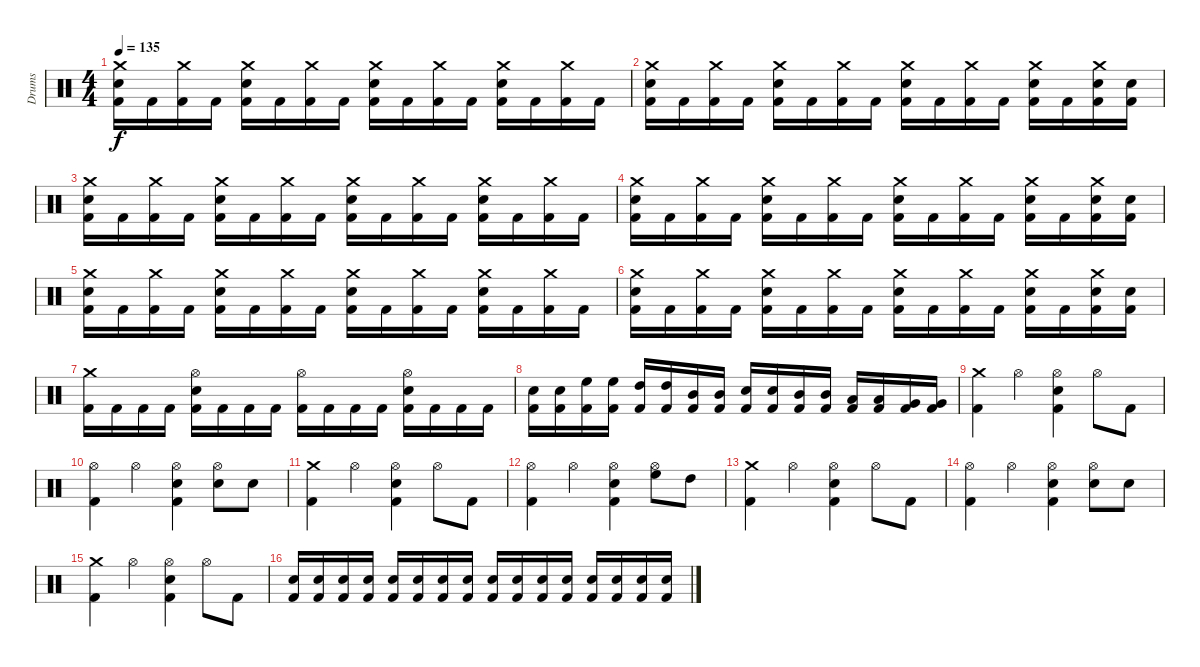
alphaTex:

\track ("Drums" "Drums") {instrument percussion}
\staff {score}
\articulation defaults
\ts (4 4)
\tempo 135
\clef neutral
\ks c
("Crash medium (hit)" "Snare (hit) 2" "Kick (hit) 2").16{dy f} "Kick (hit) 2".16 ("Crash medium (hit)" "Kick (hit) 2").16 "Kick (hit) 2".16 ("Crash medium (hit)" "Snare (hit) 2" "Kick (hit) 2").16 "Kick (hit) 2".16 ("Crash medium (hit)" "Kick (hit) 2").16 "Kick (hit) 2".16 ("Crash medium (hit)" "Snare (hit) 2" "Kick (hit) 2").16 "Kick (hit) 2".16 ("Crash medium (hit)" "Kick (hit) 2").16 "Kick (hit) 2".16 ("Crash medium (hit)" "Snare (hit) 2" "Kick (hit) 2").16 "Kick (hit) 2".16 ("Crash medium (hit)" "Kick (hit) 2").16 "Kick (hit) 2".16 |
("Crash medium (hit)" "Snare (hit) 2" "Kick (hit) 2").16 "Kick (hit) 2".16 ("Crash medium (hit)" "Kick (hit) 2").16 "Kick (hit) 2".16 ("Crash medium (hit)" "Snare (hit) 2" "Kick (hit) 2").16 "Kick (hit) 2".16 ("Crash medium (hit)" "Kick (hit) 2").16 "Kick (hit) 2".16 ("Crash medium (hit)" "Snare (hit) 2" "Kick (hit) 2").16 "Kick (hit) 2".16 ("Crash medium (hit)" "Kick (hit) 2").16 "Kick (hit) 2".16 ("Crash medium (hit)" "Snare (hit) 2" "Kick (hit) 2").16 "Kick (hit) 2".16 ("Crash medium (hit)" "Snare (hit) 2" "Kick (hit) 2").16 ("Snare (hit) 2" "Kick (hit) 2").16 |
("Crash medium (hit)" "Snare (hit) 2" "Kick (hit) 2").16 "Kick (hit) 2".16 ("Crash medium (hit)" "Kick (hit) 2").16 "Kick (hit) 2".16 ("Crash medium (hit)" "Snare (hit) 2" "Kick (hit) 2").16 "Kick (hit) 2".16 ("Crash medium (hit)" "Kick (hit) 2").16 "Kick (hit) 2".16 ("Crash medium (hit)" "Snare (hit) 2" "Kick (hit) 2").16 "Kick (hit) 2".16 ("Crash medium (hit)" "Kick (hit) 2").16 "Kick (hit) 2".16 ("Crash medium (hit)" "Snare (hit) 2" "Kick (hit) 2").16 "Kick (hit) 2".16 ("Crash medium (hit)" "Kick (hit) 2").16 "Kick (hit) 2".16 |
("Crash medium (hit)" "Snare (hit) 2" "Kick (hit) 2").16 "Kick (hit) 2".16 ("Crash medium (hit)" "Kick (hit) 2").16 "Kick (hit) 2".16 ("Crash medium (hit)" "Snare (hit) 2" "Kick (hit) 2").16 "Kick (hit) 2".16 ("Crash medium (hit)" "Kick (hit) 2").16 "Kick (hit) 2".16 ("Crash medium (hit)" "Snare (hit) 2" "Kick (hit) 2").16 "Kick (hit) 2".16 ("Crash medium (hit)" "Kick (hit) 2").16 "Kick (hit) 2".16 ("Crash medium (hit)" "Snare (hit) 2" "Kick (hit) 2").16 "Kick (hit) 2".16 ("Crash medium (hit)" "Snare (hit) 2" "Kick (hit) 2").16 ("Snare (hit) 2" "Kick (hit) 2").16 |
("Crash medium (hit)" "Snare (hit) 2" "Kick (hit) 2").16 "Kick (hit) 2".16 ("Crash medium (hit)" "Kick (hit) 2").16 "Kick (hit) 2".16 ("Crash medium (hit)" "Snare (hit) 2" "Kick (hit) 2").16 "Kick (hit) 2".16 ("Crash medium (hit)" "Kick (hit) 2").16 "Kick (hit) 2".16 ("Crash medium (hit)" "Snare (hit) 2" "Kick (hit) 2").16 "Kick (hit) 2".16 ("Crash medium (hit)" "Kick (hit) 2").16 "Kick (hit) 2".16 ("Crash medium (hit)" "Snare (hit) 2" "Kick (hit) 2").16 "Kick (hit) 2".16 ("Crash medium (hit)" "Kick (hit) 2").16 "Kick (hit) 2".16 |
("Crash medium (hit)" "Snare (hit) 2" "Kick (hit) 2").16 "Kick (hit) 2".16 ("Crash medium (hit)" "Kick (hit) 2").16 "Kick (hit) 2".16 ("Crash medium (hit)" "Snare (hit) 2" "Kick (hit) 2").16 "Kick (hit) 2".16 ("Crash medium (hit)" "Kick (hit) 2").16 "Kick (hit) 2".16 ("Crash medium (hit)" "Snare (hit) 2" "Kick (hit) 2").16 "Kick (hit) 2".16 ("Crash medium (hit)" "Kick (hit) 2").16 "Kick (hit) 2".16 ("Crash medium (hit)" "Snare (hit) 2" "Kick (hit) 2").16 "Kick (hit) 2".16 ("Crash medium (hit)" "Snare (hit) 2" "Kick (hit) 2").16 ("Snare (hit) 2" "Kick (hit) 2").16 |
("Crash medium (hit)" "Kick (hit) 2").16 "Kick (hit) 2".16 "Kick (hit) 2".16 "Kick (hit) 2".16 ("Hi-Hat (open)" "Snare (hit) 2" "Kick (hit) 2").16 "Kick (hit) 2".16 "Kick (hit) 2".16 "Kick (hit) 2".16 ("Hi-Hat (open)" "Kick (hit) 2").16 "Kick (hit) 2".16 "Kick (hit) 2".16 "Kick (hit) 2".16 ("Hi-Hat (open)" "Snare (hit) 2" "Kick (hit) 2").16 "Kick (hit) 2".16 "Kick (hit) 2".16 "Kick (hit) 2".16 |
("Snare (hit) 2" "Kick (hit) 2").16 ("Snare (hit) 2" "Kick (hit) 2").16 ("High Floor Tom (hit)" "Kick (hit) 2").16 ("High Floor Tom (hit)" "Kick (hit) 2").16 ("High Tom (hit)" "Kick (hit) 2").16 ("High Tom (hit)" "Kick (hit) 2").16 ("Mid Tom (hit)" "Kick (hit) 2").16 ("Mid Tom (hit)" "Kick (hit) 2").16 ("Snare (hit) 2" "Kick (hit) 2").16 ("Snare (hit) 2" "Kick (hit) 2").16 ("Mid Tom (hit)" "Kick (hit) 2").16 ("Mid Tom (hit)" "Kick (hit) 2").16 ("Low Tom (hit)" "Kick (hit) 2").16 ("Low Tom (hit)" "Kick (hit) 2").16 ("Very Low Tom (hit)" "Kick (hit) 2").16 ("Very Low Tom (hit)" "Kick (hit) 2").16 |
("Crash medium (hit)" "Kick (hit) 2").4 "Hi-Hat (open)".4 ("Hi-Hat (open)" "Snare (hit) 2" "Kick (hit) 2").4 "Hi-Hat (open)".8 "Kick (hit) 2".8 |
("Hi-Hat (open)" "Kick (hit) 2").4 "Hi-Hat (open)".4 ("Hi-Hat (open)" "Snare (hit) 2" "Kick (hit) 2").4 ("Hi-Hat (open)" "Snare (hit) 2").8 "Snare (hit) 2".8 |
("Crash medium (hit)" "Kick (hit) 2").4 "Hi-Hat (open)".4 ("Hi-Hat (open)" "Snare (hit) 2" "Kick (hit) 2").4 "Hi-Hat (open)".8 "Kick (hit) 2".8 |
("Hi-Hat (open)" "Kick (hit) 2").4 "Hi-Hat (open)".4 ("Hi-Hat (open)" "Snare (hit) 2" "Kick (hit) 2").4 ("Hi-Hat (open)" "High Floor Tom (hit)").8 "High Tom (hit)".8 |
("Crash medium (hit)" "Kick (hit) 2").4 "Hi-Hat (open)".4 ("Hi-Hat (open)" "Snare (hit) 2" "Kick (hit) 2").4 "Hi-Hat (open)".8 "Kick (hit) 2".8 |
("Hi-Hat (open)" "Kick (hit) 2").4 "Hi-Hat (open)".4 ("Hi-Hat (open)" "Snare (hit) 2" "Kick (hit) 2").4 ("Hi-Hat (open)" "Snare (hit) 2").8 "Snare (hit) 2".8 |
("Crash medium (hit)" "Kick (hit) 2").4 "Hi-Hat (open)".4 ("Hi-Hat (open)" "Snare (hit) 2" "Kick (hit) 2").4 "Hi-Hat (open)".8 "Kick (hit) 2".8 |
("Snare (hit) 2" "Kick (hit) 2").16 ("Snare (hit) 2" "Kick (hit) 2").16 ("Snare (hit) 2" "Kick (hit) 2").16 ("Snare (hit) 2" "Kick (hit) 2").16 ("Snare (hit) 2" "Kick (hit) 2").16 ("Snare (hit) 2" "Kick (hit) 2").16 ("Snare (hit) 2" "Kick (hit) 2").16 ("Snare (hit) 2" "Kick (hit) 2").16 ("Snare (hit) 2" "Kick (hit) 2").16 ("Snare (hit) 2" "Kick (hit) 2").16 ("Snare (hit) 2" "Kick (hit) 2").16 ("Snare (hit) 2" "Kick (hit) 2").16 ("Snare (hit) 2" "Kick (hit) 2").16 ("Snare (hit) 2" "Kick (hit) 2").16 ("Snare (hit) 2" "Kick (hit) 2").16 ("Snare (hit) 2" "Kick (hit) 2").16
